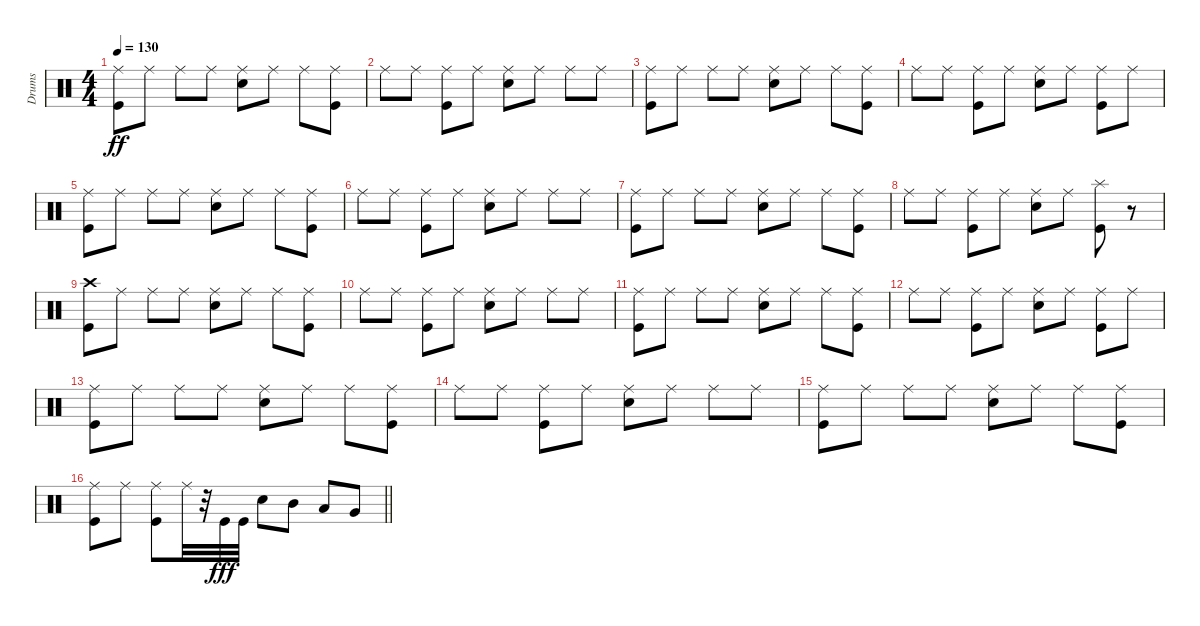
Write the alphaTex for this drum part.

\track ("Drums" "Drums") {instrument percussion}
\staff {score}
\articulation defaults
\ts (4 4)
\tempo 130
\clef neutral
\ks c
("Ride (middle)" "Kick (hit)").8{dy ff} "Ride (middle)".8 "Ride (middle)".8 "Ride (middle)".8 ("Ride (middle)" "Snare (hit) 2").8 "Ride (middle)".8 "Ride (middle)".8 ("Ride (middle)" "Kick (hit)").8 |
"Ride (middle)".8 "Ride (middle)".8 ("Ride (middle)" "Kick (hit)").8 "Ride (middle)".8 ("Ride (middle)" "Snare (hit) 2").8 "Ride (middle)".8 "Ride (middle)".8 "Ride (middle)".8 |
("Ride (middle)" "Kick (hit)").8 "Ride (middle)".8 "Ride (middle)".8 "Ride (middle)".8 ("Ride (middle)" "Snare (hit) 2").8 "Ride (middle)".8 "Ride (middle)".8 ("Ride (middle)" "Kick (hit)").8 |
"Ride (middle)".8 "Ride (middle)".8 ("Ride (middle)" "Kick (hit)").8 "Ride (middle)".8 ("Ride (middle)" "Snare (hit) 2").8 "Ride (middle)".8 ("Ride (middle)" "Kick (hit)").8 "Ride (middle)".8 |
("Ride (middle)" "Kick (hit)").8 "Ride (middle)".8 "Ride (middle)".8 "Ride (middle)".8 ("Ride (middle)" "Snare (hit) 2").8 "Ride (middle)".8 "Ride (middle)".8 ("Ride (middle)" "Kick (hit)").8 |
"Ride (middle)".8 "Ride (middle)".8 ("Ride (middle)" "Kick (hit)").8 "Ride (middle)".8 ("Ride (middle)" "Snare (hit) 2").8 "Ride (middle)".8 "Ride (middle)".8 "Ride (middle)".8 |
("Ride (middle)" "Kick (hit)").8 "Ride (middle)".8 "Ride (middle)".8 "Ride (middle)".8 ("Ride (middle)" "Snare (hit) 2").8 "Ride (middle)".8 "Ride (middle)".8 ("Ride (middle)" "Kick (hit)").8 |
"Ride (middle)".8 "Ride (middle)".8 ("Ride (middle)" "Kick (hit)").8 "Ride (middle)".8 ("Ride (middle)" "Snare (hit) 2").8 "Ride (middle)".8 ("Splash (hit)" "Kick (hit)").8 r.8 |
("Crash high (hit)" "Kick (hit)").8 "Ride (middle)".8 "Ride (middle)".8 "Ride (middle)".8 ("Ride (middle)" "Snare (hit) 2").8 "Ride (middle)".8 "Ride (middle)".8 ("Ride (middle)" "Kick (hit)").8 |
"Ride (middle)".8 "Ride (middle)".8 ("Ride (middle)" "Kick (hit)").8 "Ride (middle)".8 ("Ride (middle)" "Snare (hit) 2").8 "Ride (middle)".8 "Ride (middle)".8 "Ride (middle)".8 |
("Ride (middle)" "Kick (hit)").8 "Ride (middle)".8 "Ride (middle)".8 "Ride (middle)".8 ("Ride (middle)" "Snare (hit) 2").8 "Ride (middle)".8 "Ride (middle)".8 ("Ride (middle)" "Kick (hit)").8 |
"Ride (middle)".8 "Ride (middle)".8 ("Ride (middle)" "Kick (hit)").8 "Ride (middle)".8 ("Ride (middle)" "Snare (hit) 2").8 "Ride (middle)".8 ("Ride (middle)" "Kick (hit)").8 "Ride (middle)".8 |
("Ride (middle)" "Kick (hit)").8 "Ride (middle)".8 "Ride (middle)".8 "Ride (middle)".8 ("Ride (middle)" "Snare (hit) 2").8 "Ride (middle)".8 "Ride (middle)".8 ("Ride (middle)" "Kick (hit)").8 |
"Ride (middle)".8 "Ride (middle)".8 ("Ride (middle)" "Kick (hit)").8 "Ride (middle)".8 ("Ride (middle)" "Snare (hit) 2").8 "Ride (middle)".8 "Ride (middle)".8 "Ride (middle)".8 |
("Ride (middle)" "Kick (hit)").8 "Ride (middle)".8 "Ride (middle)".8 "Ride (middle)".8 ("Ride (middle)" "Snare (hit) 2").8 "Ride (middle)".8 "Ride (middle)".8 ("Ride (middle)" "Kick (hit)").8 |
\barLineRight lightlight
("Ride (middle)" "Kick (hit)").8 "Ride (middle)".8 ("Ride (middle)" "Kick (hit)").8 "Ride (middle)".32 r.32 "Kick (hit)".32{dy fff} "Kick (hit)".32 "Snare (hit) 2".8 "Mid Tom (hit)".8 "Low Tom (hit)".8 "Very Low Tom (hit)".8
